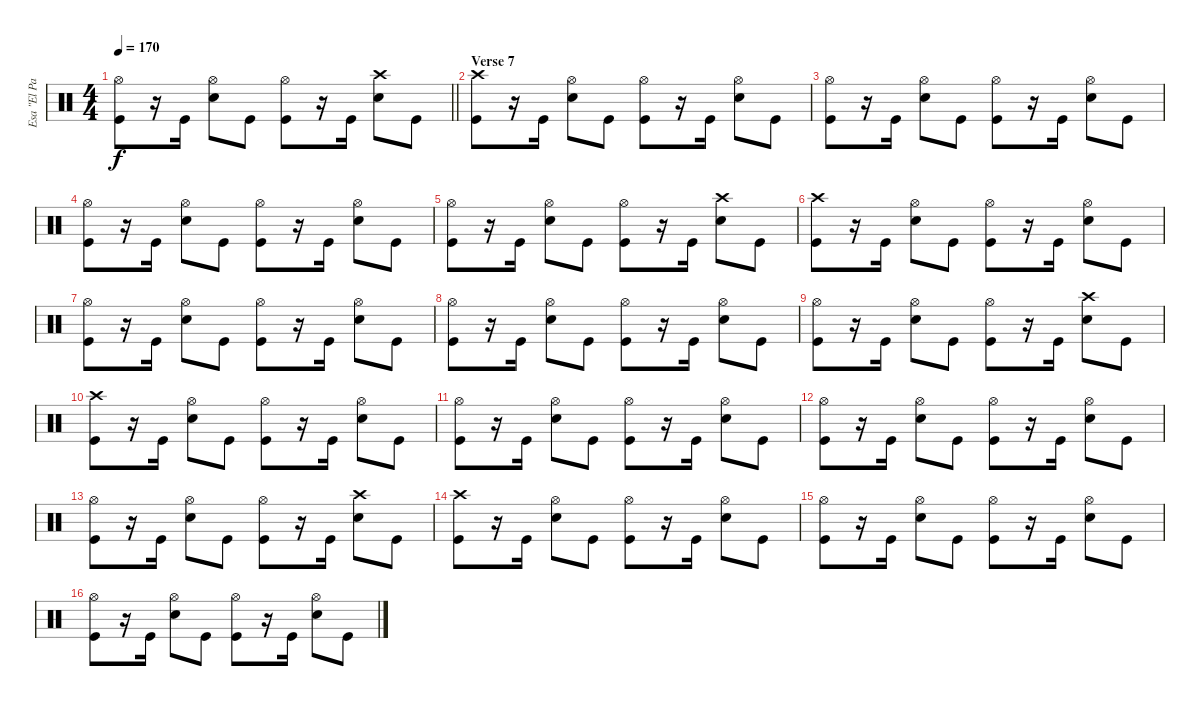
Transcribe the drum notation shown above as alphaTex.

\track ("Esa \"El Pasaderia\" Palosaari" "Esa \"El Pa") {instrument percussion}
\staff {score}
\articulation defaults
\ts (4 4)
\tempo 170
\clef neutral
\barLineRight lightlight
\ks c
("Hi-Hat (open)" "Kick (hit)").8{dy f} r.16 "Kick (hit)".16 ("Hi-Hat (open)" "Snare (hit) 2").8 "Kick (hit)".8 ("Hi-Hat (open)" "Kick (hit)").8 r.16 "Kick (hit)".16 ("Crash high (hit)" "Snare (hit) 2").8 "Kick (hit)".8 |
\section ("" "Verse 7")
("Crash high (hit)" "Kick (hit)").8 r.16 "Kick (hit)".16 ("Hi-Hat (open)" "Snare (hit) 2").8 "Kick (hit)".8 ("Hi-Hat (open)" "Kick (hit)").8 r.16 "Kick (hit)".16 ("Hi-Hat (open)" "Snare (hit) 2").8 "Kick (hit)".8 |
("Hi-Hat (open)" "Kick (hit)").8 r.16 "Kick (hit)".16 ("Hi-Hat (open)" "Snare (hit) 2").8 "Kick (hit)".8 ("Hi-Hat (open)" "Kick (hit)").8 r.16 "Kick (hit)".16 ("Hi-Hat (open)" "Snare (hit) 2").8 "Kick (hit)".8 |
("Hi-Hat (open)" "Kick (hit)").8 r.16 "Kick (hit)".16 ("Hi-Hat (open)" "Snare (hit) 2").8 "Kick (hit)".8 ("Hi-Hat (open)" "Kick (hit)").8 r.16 "Kick (hit)".16 ("Hi-Hat (open)" "Snare (hit) 2").8 "Kick (hit)".8 |
("Hi-Hat (open)" "Kick (hit)").8 r.16 "Kick (hit)".16 ("Hi-Hat (open)" "Snare (hit) 2").8 "Kick (hit)".8 ("Hi-Hat (open)" "Kick (hit)").8 r.16 "Kick (hit)".16 ("Crash high (hit)" "Snare (hit) 2").8 "Kick (hit)".8 |
("Crash high (hit)" "Kick (hit)").8 r.16 "Kick (hit)".16 ("Hi-Hat (open)" "Snare (hit) 2").8 "Kick (hit)".8 ("Hi-Hat (open)" "Kick (hit)").8 r.16 "Kick (hit)".16 ("Hi-Hat (open)" "Snare (hit) 2").8 "Kick (hit)".8 |
("Hi-Hat (open)" "Kick (hit)").8 r.16 "Kick (hit)".16 ("Hi-Hat (open)" "Snare (hit) 2").8 "Kick (hit)".8 ("Hi-Hat (open)" "Kick (hit)").8 r.16 "Kick (hit)".16 ("Hi-Hat (open)" "Snare (hit) 2").8 "Kick (hit)".8 |
("Hi-Hat (open)" "Kick (hit)").8 r.16 "Kick (hit)".16 ("Hi-Hat (open)" "Snare (hit) 2").8 "Kick (hit)".8 ("Hi-Hat (open)" "Kick (hit)").8 r.16 "Kick (hit)".16 ("Hi-Hat (open)" "Snare (hit) 2").8 "Kick (hit)".8 |
("Hi-Hat (open)" "Kick (hit)").8 r.16 "Kick (hit)".16 ("Hi-Hat (open)" "Snare (hit) 2").8 "Kick (hit)".8 ("Hi-Hat (open)" "Kick (hit)").8 r.16 "Kick (hit)".16 ("Crash high (hit)" "Snare (hit) 2").8 "Kick (hit)".8 |
("Crash high (hit)" "Kick (hit)").8 r.16 "Kick (hit)".16 ("Hi-Hat (open)" "Snare (hit) 2").8 "Kick (hit)".8 ("Hi-Hat (open)" "Kick (hit)").8 r.16 "Kick (hit)".16 ("Hi-Hat (open)" "Snare (hit) 2").8 "Kick (hit)".8 |
("Hi-Hat (open)" "Kick (hit)").8 r.16 "Kick (hit)".16 ("Hi-Hat (open)" "Snare (hit) 2").8 "Kick (hit)".8 ("Hi-Hat (open)" "Kick (hit)").8 r.16 "Kick (hit)".16 ("Hi-Hat (open)" "Snare (hit) 2").8 "Kick (hit)".8 |
("Hi-Hat (open)" "Kick (hit)").8 r.16 "Kick (hit)".16 ("Hi-Hat (open)" "Snare (hit) 2").8 "Kick (hit)".8 ("Hi-Hat (open)" "Kick (hit)").8 r.16 "Kick (hit)".16 ("Hi-Hat (open)" "Snare (hit) 2").8 "Kick (hit)".8 |
("Hi-Hat (open)" "Kick (hit)").8 r.16 "Kick (hit)".16 ("Hi-Hat (open)" "Snare (hit) 2").8 "Kick (hit)".8 ("Hi-Hat (open)" "Kick (hit)").8 r.16 "Kick (hit)".16 ("Crash high (hit)" "Snare (hit) 2").8 "Kick (hit)".8 |
("Crash high (hit)" "Kick (hit)").8 r.16 "Kick (hit)".16 ("Hi-Hat (open)" "Snare (hit) 2").8 "Kick (hit)".8 ("Hi-Hat (open)" "Kick (hit)").8 r.16 "Kick (hit)".16 ("Hi-Hat (open)" "Snare (hit) 2").8 "Kick (hit)".8 |
("Hi-Hat (open)" "Kick (hit)").8 r.16 "Kick (hit)".16 ("Hi-Hat (open)" "Snare (hit) 2").8 "Kick (hit)".8 ("Hi-Hat (open)" "Kick (hit)").8 r.16 "Kick (hit)".16 ("Hi-Hat (open)" "Snare (hit) 2").8 "Kick (hit)".8 |
("Hi-Hat (open)" "Kick (hit)").8 r.16 "Kick (hit)".16 ("Hi-Hat (open)" "Snare (hit) 2").8 "Kick (hit)".8 ("Hi-Hat (open)" "Kick (hit)").8 r.16 "Kick (hit)".16 ("Hi-Hat (open)" "Snare (hit) 2").8 "Kick (hit)".8
